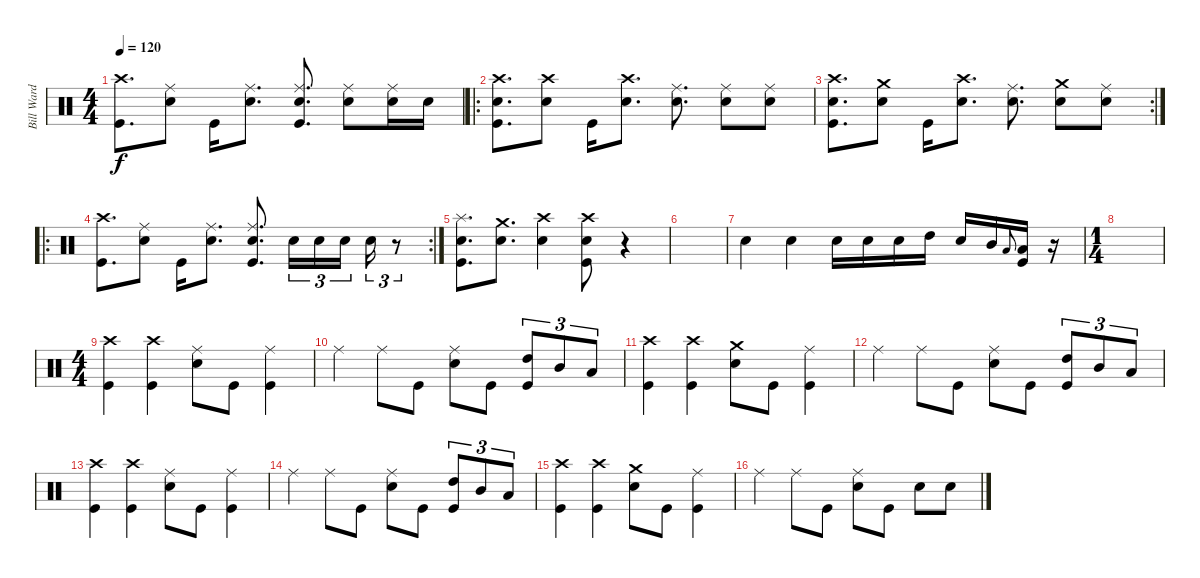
\track ("Bill Ward" "Bill Ward") {instrument percussion}
\staff {score}
\articulation defaults
\ts (4 4)
\tempo 120
\clef neutral
\ks c
("Crash high (hit)" "Kick (hit)").8{d dy f} ("Ride (middle)" "Electric Snare (hit)").8 "Kick (hit)".16 ("Ride (middle)" "Electric Snare (hit)").8{d} ("Ride (middle)" "Electric Snare (hit)" "Kick (hit)").8{d} ("Ride (middle)" "Electric Snare (hit)").8 ("Ride (middle)" "Electric Snare (hit)").16 "Electric Snare (hit)".16 |
\ro
("Crash high (hit)" "Electric Snare (hit)" "Kick (hit)").8{d} ("Crash high (hit)" "Electric Snare (hit)").8 "Kick (hit)".16 ("Crash high (hit)" "Electric Snare (hit)").8{d} ("Ride (middle)" "Electric Snare (hit)").8{d} ("Ride (middle)" "Electric Snare (hit)").8 ("Ride (middle)" "Electric Snare (hit)").8 |
\rc 2
("Crash high (hit)" "Electric Snare (hit)" "Kick (hit)").8{d} ("Crash medium (hit)" "Electric Snare (hit)").8 "Kick (hit)".16 ("Crash high (hit)" "Electric Snare (hit)").8{d} ("Ride (middle)" "Electric Snare (hit)").8{d} ("Crash medium (hit)" "Electric Snare (hit)").8 ("Ride (middle)" "Electric Snare (hit)").8 |
\ro
\rc 2
("Crash high (hit)" "Kick (hit)").8{d} ("Ride (middle)" "Electric Snare (hit)").8 "Kick (hit)".16 ("Ride (middle)" "Electric Snare (hit)").8{d} ("Ride (middle)" "Electric Snare (hit)" "Kick (hit)").8{d} "Electric Snare (hit)".16{tu (3 2)} "Electric Snare (hit)".16{tu (3 2)} "Electric Snare (hit)".16{tu (3 2) beam splitsecondary} "Electric Snare (hit)".16{tu (3 2)} r.8{tu (3 2)} |
("Splash (hit)" "Electric Snare (hit)" "Kick (hit)").8{d} ("Crash medium (hit)" "Electric Snare (hit)").8{d} ("Crash high (hit)" "Electric Snare (hit)").4 ("Crash high (hit)" "Electric Snare (hit)" "Kick (hit)").8 r.4 |
|
"Electric Snare (hit)".4 "Electric Snare (hit)".4 "Electric Snare (hit)".16 "Electric Snare (hit)".16 "Electric Snare (hit)".16 "High Tom (hit)".16 "Electric Snare (hit)".16 "Mid Tom (hit)".16 "Low Tom (hit)".8{gr onbeat} ("Low Tom (hit)" "Kick (hit)").16 r.16 |
\ts (1 4)
|
\ts (4 4)
("Crash high (hit)" "Kick (hit)").4 ("Crash high (hit)" "Kick (hit)").4 ("Ride (middle)" "Electric Snare (hit)").8 "Kick (hit)".8 ("Ride (middle)" "Kick (hit)").4 |
"Ride (middle)".4 "Ride (middle)".8 "Kick (hit)".8 ("Ride (middle)" "Electric Snare (hit)").8 "Kick (hit)".8 ("High Tom (hit)" "Kick (hit)").8{tu (3 2)} "Mid Tom (hit)".8{tu (3 2)} "Low Tom (hit)".8{tu (3 2)} |
("Crash high (hit)" "Kick (hit)").4 ("Crash high (hit)" "Kick (hit)").4 ("Crash medium (hit)" "Electric Snare (hit)").8 "Kick (hit)".8 ("Ride (middle)" "Kick (hit)").4 |
"Ride (middle)".4 "Ride (middle)".8 "Kick (hit)".8 ("Ride (middle)" "Electric Snare (hit)").8 "Kick (hit)".8 ("High Tom (hit)" "Kick (hit)").8{tu (3 2)} "Mid Tom (hit)".8{tu (3 2)} "Low Tom (hit)".8{tu (3 2)} |
("Crash high (hit)" "Kick (hit)").4 ("Crash high (hit)" "Kick (hit)").4 ("Ride (middle)" "Electric Snare (hit)").8 "Kick (hit)".8 ("Ride (middle)" "Kick (hit)").4 |
"Ride (middle)".4 "Ride (middle)".8 "Kick (hit)".8 ("Ride (middle)" "Electric Snare (hit)").8 "Kick (hit)".8 ("High Tom (hit)" "Kick (hit)").8{tu (3 2)} "Mid Tom (hit)".8{tu (3 2)} "Low Tom (hit)".8{tu (3 2)} |
("Crash high (hit)" "Kick (hit)").4 ("Crash high (hit)" "Kick (hit)").4 ("Crash medium (hit)" "Electric Snare (hit)").8 "Kick (hit)".8 ("Ride (middle)" "Kick (hit)").4 |
"Ride (middle)".4 "Ride (middle)".8 "Kick (hit)".8 ("Ride (middle)" "Electric Snare (hit)").8 "Kick (hit)".8 "Electric Snare (hit)".8 "Electric Snare (hit)".8
